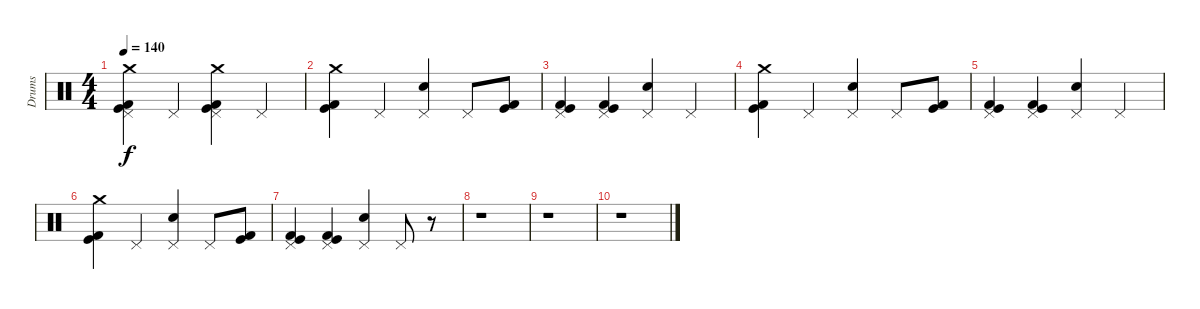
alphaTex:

\track ("Drums" "Drums") {instrument percussion}
\staff {score}
\articulation defaults
\ts (4 4)
\tempo 140
\clef neutral
\ks c
("Crash medium (hit)" "Kick (hit) 2" "Kick (hit)" "Pedal Hi-Hat (hit)").4{dy f} "Pedal Hi-Hat (hit)".4 ("Crash medium (hit)" "Kick (hit) 2" "Kick (hit)" "Pedal Hi-Hat (hit)").4 "Pedal Hi-Hat (hit)".4 |
("Kick (hit)" "Crash medium (hit)" "Kick (hit) 2").4 "Pedal Hi-Hat (hit)".4 ("Pedal Hi-Hat (hit)" "Snare (hit) 2").4 "Pedal Hi-Hat (hit)".8 ("Kick (hit)" "Kick (hit) 2").8 |
("Pedal Hi-Hat (hit)" "Kick (hit)" "Kick (hit) 2").4 ("Pedal Hi-Hat (hit)" "Kick (hit)" "Kick (hit) 2").4 ("Pedal Hi-Hat (hit)" "Snare (hit) 2").4 "Pedal Hi-Hat (hit)".4 |
("Kick (hit)" "Crash medium (hit)" "Kick (hit) 2").4 "Pedal Hi-Hat (hit)".4 ("Pedal Hi-Hat (hit)" "Snare (hit) 2").4 "Pedal Hi-Hat (hit)".8 ("Kick (hit)" "Kick (hit) 2").8 |
("Pedal Hi-Hat (hit)" "Kick (hit)" "Kick (hit) 2").4 ("Pedal Hi-Hat (hit)" "Kick (hit)" "Kick (hit) 2").4 ("Pedal Hi-Hat (hit)" "Snare (hit) 2").4 "Pedal Hi-Hat (hit)".4 |
("Kick (hit)" "Crash medium (hit)" "Kick (hit) 2").4 "Pedal Hi-Hat (hit)".4 ("Pedal Hi-Hat (hit)" "Snare (hit) 2").4 "Pedal Hi-Hat (hit)".8 ("Kick (hit)" "Kick (hit) 2").8 |
("Pedal Hi-Hat (hit)" "Kick (hit)" "Kick (hit) 2").4 ("Pedal Hi-Hat (hit)" "Kick (hit)" "Kick (hit) 2").4 ("Pedal Hi-Hat (hit)" "Snare (hit) 2").4 "Pedal Hi-Hat (hit)".8 r.8 |
r.1 |
r.1 |
r.1
